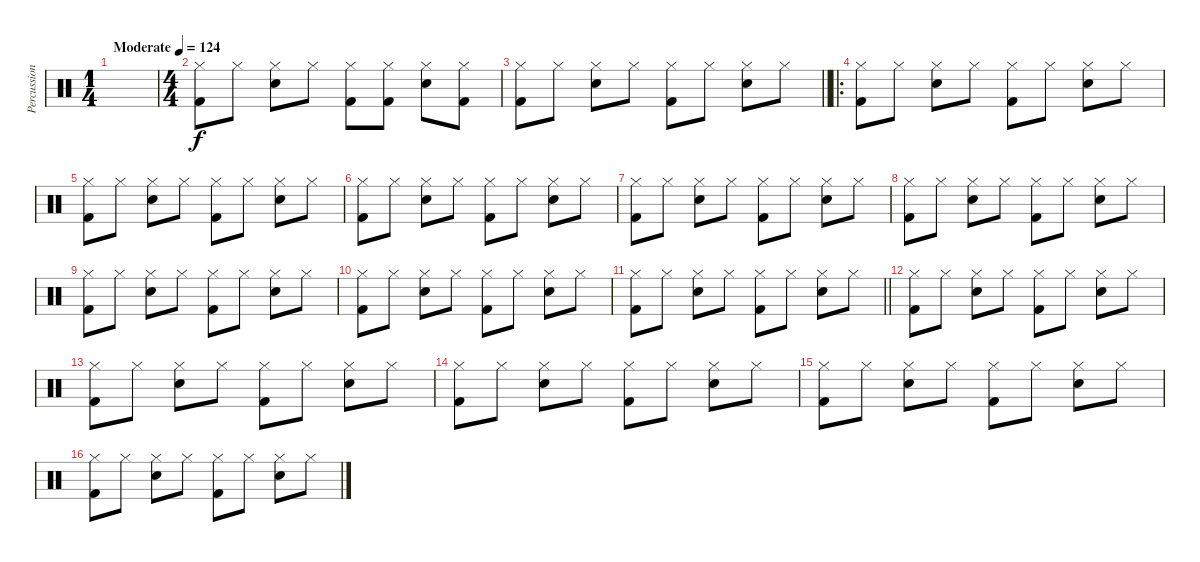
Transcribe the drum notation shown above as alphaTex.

\track ("Percussion" "Percussion") {instrument percussion}
\staff {score}
\articulation defaults
\ts (1 4)
\tempo (124 "Moderate")
\clef neutral
\ks c
|
\ts (4 4)
("Hi-Hat (closed)" "Kick (hit) 2").8 "Hi-Hat (closed)".8 ("Hi-Hat (closed)" "Snare (hit) 2").8 "Hi-Hat (closed)".8 ("Hi-Hat (closed)" "Kick (hit) 2").8 ("Hi-Hat (closed)" "Kick (hit) 2").8 ("Hi-Hat (closed)" "Snare (hit) 2").8 ("Hi-Hat (closed)" "Kick (hit) 2").8 |
\barLineRight lightlight
("Hi-Hat (closed)" "Kick (hit) 2").8 "Hi-Hat (closed)".8 ("Hi-Hat (closed)" "Snare (hit) 2").8 "Hi-Hat (closed)".8 ("Hi-Hat (closed)" "Kick (hit) 2").8 "Hi-Hat (closed)".8 ("Hi-Hat (closed)" "Snare (hit) 2").8 "Hi-Hat (closed)".8 |
\ro
("Hi-Hat (closed)" "Kick (hit) 2").8 "Hi-Hat (closed)".8 ("Hi-Hat (closed)" "Snare (hit) 2").8 "Hi-Hat (closed)".8 ("Hi-Hat (closed)" "Kick (hit) 2").8 "Hi-Hat (closed)".8 ("Hi-Hat (closed)" "Snare (hit) 2").8 "Hi-Hat (closed)".8 |
("Hi-Hat (closed)" "Kick (hit) 2").8 "Hi-Hat (closed)".8 ("Hi-Hat (closed)" "Snare (hit) 2").8 "Hi-Hat (closed)".8 ("Hi-Hat (closed)" "Kick (hit) 2").8 "Hi-Hat (closed)".8 ("Hi-Hat (closed)" "Snare (hit) 2").8 "Hi-Hat (closed)".8 |
("Hi-Hat (closed)" "Kick (hit) 2").8 "Hi-Hat (closed)".8 ("Hi-Hat (closed)" "Snare (hit) 2").8 "Hi-Hat (closed)".8 ("Hi-Hat (closed)" "Kick (hit) 2").8 "Hi-Hat (closed)".8 ("Hi-Hat (closed)" "Snare (hit) 2").8 "Hi-Hat (closed)".8 |
("Hi-Hat (closed)" "Kick (hit) 2").8 "Hi-Hat (closed)".8 ("Hi-Hat (closed)" "Snare (hit) 2").8 "Hi-Hat (closed)".8 ("Hi-Hat (closed)" "Kick (hit) 2").8 "Hi-Hat (closed)".8 ("Hi-Hat (closed)" "Snare (hit) 2").8 "Hi-Hat (closed)".8 |
("Hi-Hat (closed)" "Kick (hit) 2").8 "Hi-Hat (closed)".8 ("Hi-Hat (closed)" "Snare (hit) 2").8 "Hi-Hat (closed)".8 ("Hi-Hat (closed)" "Kick (hit) 2").8 "Hi-Hat (closed)".8 ("Hi-Hat (closed)" "Snare (hit) 2").8 "Hi-Hat (closed)".8 |
("Hi-Hat (closed)" "Kick (hit) 2").8 "Hi-Hat (closed)".8 ("Hi-Hat (closed)" "Snare (hit) 2").8 "Hi-Hat (closed)".8 ("Hi-Hat (closed)" "Kick (hit) 2").8 "Hi-Hat (closed)".8 ("Hi-Hat (closed)" "Snare (hit) 2").8 "Hi-Hat (closed)".8 |
("Hi-Hat (closed)" "Kick (hit) 2").8 "Hi-Hat (closed)".8 ("Hi-Hat (closed)" "Snare (hit) 2").8 "Hi-Hat (closed)".8 ("Hi-Hat (closed)" "Kick (hit) 2").8 "Hi-Hat (closed)".8 ("Hi-Hat (closed)" "Snare (hit) 2").8 "Hi-Hat (closed)".8 |
\barLineRight lightlight
("Hi-Hat (closed)" "Kick (hit) 2").8 "Hi-Hat (closed)".8 ("Hi-Hat (closed)" "Snare (hit) 2").8 "Hi-Hat (closed)".8 ("Hi-Hat (closed)" "Kick (hit) 2").8 "Hi-Hat (closed)".8 ("Hi-Hat (closed)" "Snare (hit) 2").8 "Hi-Hat (closed)".8 |
("Hi-Hat (closed)" "Kick (hit) 2").8 "Hi-Hat (closed)".8 ("Hi-Hat (closed)" "Snare (hit) 2").8 "Hi-Hat (closed)".8 ("Hi-Hat (closed)" "Kick (hit) 2").8 "Hi-Hat (closed)".8 ("Hi-Hat (closed)" "Snare (hit) 2").8 "Hi-Hat (closed)".8 |
("Hi-Hat (closed)" "Kick (hit) 2").8 "Hi-Hat (closed)".8 ("Hi-Hat (closed)" "Snare (hit) 2").8 "Hi-Hat (closed)".8 ("Hi-Hat (closed)" "Kick (hit) 2").8 "Hi-Hat (closed)".8 ("Hi-Hat (closed)" "Snare (hit) 2").8 "Hi-Hat (closed)".8 |
("Hi-Hat (closed)" "Kick (hit) 2").8 "Hi-Hat (closed)".8 ("Hi-Hat (closed)" "Snare (hit) 2").8 "Hi-Hat (closed)".8 ("Hi-Hat (closed)" "Kick (hit) 2").8 "Hi-Hat (closed)".8 ("Hi-Hat (closed)" "Snare (hit) 2").8 "Hi-Hat (closed)".8 |
("Hi-Hat (closed)" "Kick (hit) 2").8 "Hi-Hat (closed)".8 ("Hi-Hat (closed)" "Snare (hit) 2").8 "Hi-Hat (closed)".8 ("Hi-Hat (closed)" "Kick (hit) 2").8 "Hi-Hat (closed)".8 ("Hi-Hat (closed)" "Snare (hit) 2").8 "Hi-Hat (closed)".8 |
("Hi-Hat (closed)" "Kick (hit) 2").8 "Hi-Hat (closed)".8 ("Hi-Hat (closed)" "Snare (hit) 2").8 "Hi-Hat (closed)".8 ("Hi-Hat (closed)" "Kick (hit) 2").8 "Hi-Hat (closed)".8 ("Hi-Hat (closed)" "Snare (hit) 2").8 "Hi-Hat (closed)".8
